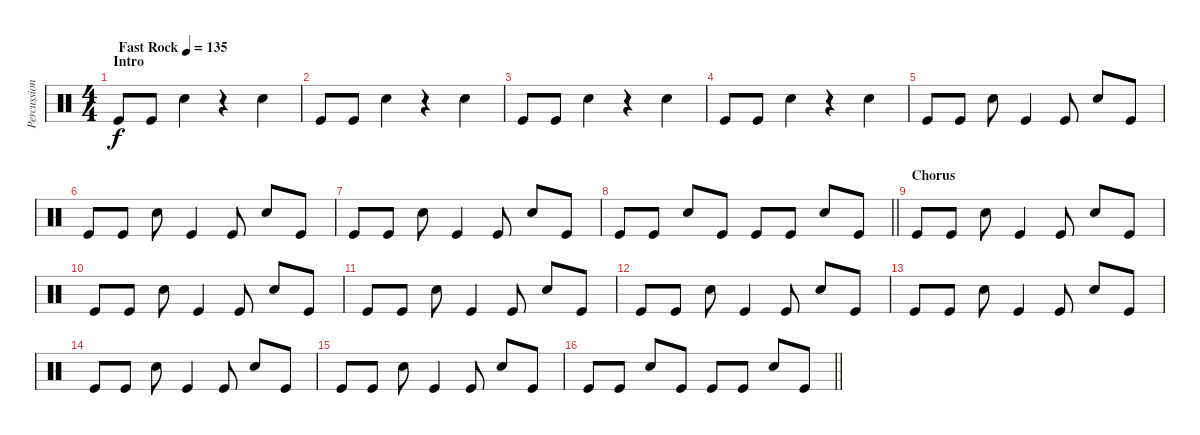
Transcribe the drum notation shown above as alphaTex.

\track ("Percussion" "Percussion") {instrument percussion}
\staff {score}
\articulation defaults
\ts (4 4)
\section ("" "Intro")
\tempo (135 "Fast Rock")
\clef neutral
\ks c "Kick (hit)".8{dy f} "Kick (hit)".8 "Snare (hit) 2".4
r.4 "Snare (hit) 2".4 |
"Kick (hit)".8 "Kick (hit)".8 "Snare (hit) 2".4 r.4 "Snare (hit) 2".4 |
"Kick (hit)".8 "Kick (hit)".8 "Snare (hit) 2".4 r.4 "Snare (hit) 2".4 |
"Kick (hit)".8 "Kick (hit)".8 "Snare (hit) 2".4 r.4 "Snare (hit) 2".4 |
"Kick (hit)".8 "Kick (hit)".8 "Snare (hit) 2".8 "Kick (hit)".4 "Kick (hit)".8 "Snare (hit) 2".8 "Kick (hit)".8 |
"Kick (hit)".8 "Kick (hit)".8 "Snare (hit) 2".8 "Kick (hit)".4 "Kick (hit)".8 "Snare (hit) 2".8 "Kick (hit)".8 |
"Kick (hit)".8 "Kick (hit)".8 "Snare (hit) 2".8 "Kick (hit)".4 "Kick (hit)".8 "Snare (hit) 2".8 "Kick (hit)".8 |
\barLineRight lightlight "Kick (hit)".8 "Kick (hit)".8 "Snare (hit) 2".8 "Kick (hit)".8 "Kick (hit)".8 "Kick (hit)".8 "Snare (hit) 2".8 "Kick (hit)".8
|
\section ("" "Chorus")
"Kick (hit)".8 "Kick (hit)".8 "Snare (hit) 2".8 "Kick (hit)".4 "Kick (hit)".8 "Snare (hit) 2".8 "Kick (hit)".8 |
"Kick (hit)".8 "Kick (hit)".8 "Snare (hit) 2".8 "Kick (hit)".4 "Kick (hit)".8 "Snare (hit) 2".8 "Kick (hit)".8 |
"Kick (hit)".8 "Kick (hit)".8 "Snare (hit) 2".8 "Kick (hit)".4 "Kick (hit)".8 "Snare (hit) 2".8 "Kick (hit)".8 |
"Kick (hit)".8 "Kick (hit)".8 "Snare (hit) 2".8 "Kick (hit)".4 "Kick (hit)".8 "Snare (hit) 2".8 "Kick (hit)".8 |
"Kick (hit)".8 "Kick (hit)".8 "Snare (hit) 2".8 "Kick (hit)".4 "Kick (hit)".8 "Snare (hit) 2".8 "Kick (hit)".8 |
"Kick (hit)".8 "Kick (hit)".8 "Snare (hit) 2".8 "Kick (hit)".4 "Kick (hit)".8 "Snare (hit) 2".8 "Kick (hit)".8 |
"Kick (hit)".8 "Kick (hit)".8 "Snare (hit) 2".8 "Kick (hit)".4 "Kick (hit)".8 "Snare (hit) 2".8 "Kick (hit)".8 |
\barLineRight lightlight "Kick (hit)".8 "Kick (hit)".8 "Snare (hit) 2".8 "Kick (hit)".8 "Kick (hit)".8 "Kick (hit)".8 "Snare (hit) 2".8 "Kick (hit)".8
